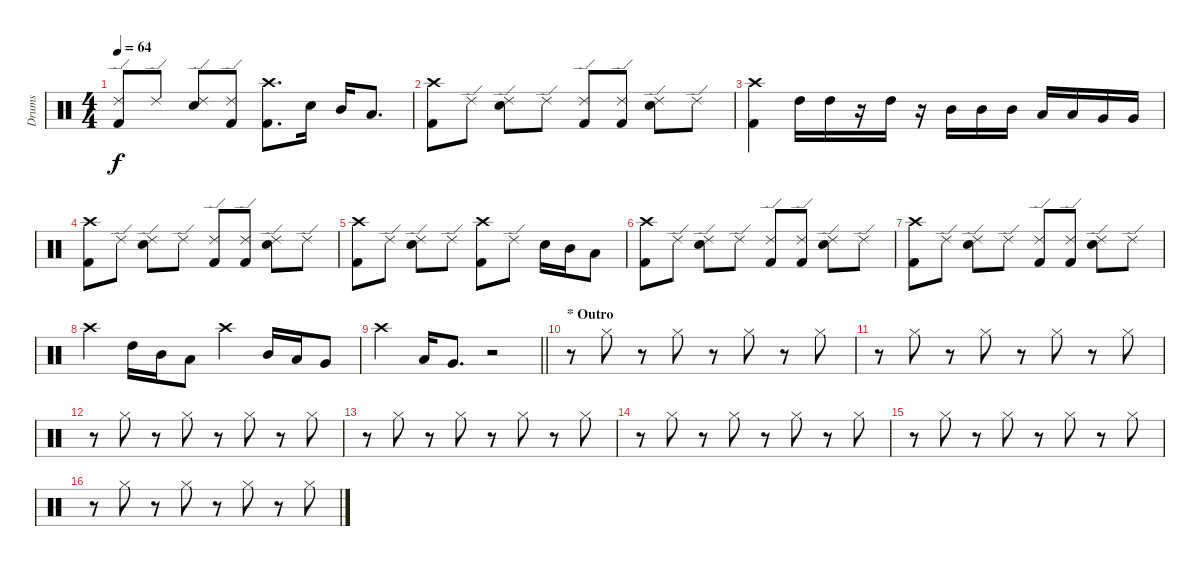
\track ("Drums" "Drums") {instrument percussion}
\staff {score}
\articulation defaults
\ts (4 4)
\tempo 64
\clef neutral
\ks c
("Ride (edge) 2" "Kick (hit) 2").8{dy f} "Ride (edge) 2".8 ("Ride (edge) 2" "Electric Snare (hit)").8 ("Ride (edge) 2" "Kick (hit) 2").8 ("Crash high (hit)" "Kick (hit) 2").8{d} "Electric Snare (hit)".16 "Mid Tom (hit)".16 "Low Tom (hit)".8{d} |
("Crash high (hit)" "Kick (hit) 2").8 "Ride (edge) 2".8 ("Ride (edge) 2" "Electric Snare (hit)").8 "Ride (edge) 2".8 ("Ride (edge) 2" "Kick (hit) 2").8 ("Ride (edge) 2" "Kick (hit) 2").8 ("Ride (edge) 2" "Electric Snare (hit)").8 "Ride (edge) 2".8 |
("Crash high (hit)" "Kick (hit) 2").4 "High Tom (hit)".16 "High Tom (hit)".16 r.16 "High Tom (hit)".16 r.16 "Mid Tom (hit)".16 "Mid Tom (hit)".16 "Mid Tom (hit)".16 "Low Tom (hit)".16 "Low Tom (hit)".16 "Very Low Tom (hit)".16 "Very Low Tom (hit)".16 |
("Crash high (hit)" "Kick (hit) 2").8 "Ride (edge) 2".8 ("Ride (edge) 2" "Electric Snare (hit)").8 "Ride (edge) 2".8 ("Ride (edge) 2" "Kick (hit) 2").8 ("Ride (edge) 2" "Kick (hit) 2").8 ("Ride (edge) 2" "Electric Snare (hit)").8 "Ride (edge) 2".8 |
("Crash high (hit)" "Kick (hit) 2").8 "Ride (edge) 2".8 ("Ride (edge) 2" "Electric Snare (hit)").8 "Ride (edge) 2".8 ("Crash high (hit)" "Kick (hit) 2").8 "Ride (edge) 2".8 "Electric Snare (hit)".16 "Mid Tom (hit)".16 "Low Tom (hit)".8 |
("Crash high (hit)" "Kick (hit) 2").8 "Ride (edge) 2".8 ("Ride (edge) 2" "Electric Snare (hit)").8 "Ride (edge) 2".8 ("Ride (edge) 2" "Kick (hit) 2").8 ("Ride (edge) 2" "Kick (hit) 2").8 ("Ride (edge) 2" "Electric Snare (hit)").8 "Ride (edge) 2".8 |
("Crash high (hit)" "Kick (hit) 2").8 "Ride (edge) 2".8 ("Ride (edge) 2" "Electric Snare (hit)").8 "Ride (edge) 2".8 ("Ride (edge) 2" "Kick (hit) 2").8 ("Ride (edge) 2" "Kick (hit) 2").8 ("Ride (edge) 2" "Electric Snare (hit)").8 "Ride (edge) 2".8 |
"Crash high (hit)".4 "High Tom (hit)".16 "Mid Tom (hit)".16 "Low Tom (hit)".8 "Crash high (hit)".4 "Mid Tom (hit)".16 "Low Tom (hit)".16 "Very Low Tom (hit)".8 |
\barLineRight lightlight "Crash high (hit)".4 "Low Tom (hit)".16 "Very Low Tom (hit)".8{d}
r.2 |
\section ("" "* Outro")
r.8 "Hi-Hat (closed)".8 r.8 "Hi-Hat (closed)".8 r.8 "Hi-Hat (closed)".8 r.8 "Hi-Hat (closed)".8 |
r.8 "Hi-Hat (closed)".8 r.8 "Hi-Hat (closed)".8 r.8 "Hi-Hat (closed)".8 r.8 "Hi-Hat (closed)".8 |
r.8 "Hi-Hat (closed)".8 r.8 "Hi-Hat (closed)".8 r.8 "Hi-Hat (closed)".8 r.8 "Hi-Hat (closed)".8 |
r.8 "Hi-Hat (closed)".8 r.8 "Hi-Hat (closed)".8 r.8 "Hi-Hat (closed)".8 r.8 "Hi-Hat (closed)".8 |
r.8 "Hi-Hat (closed)".8 r.8 "Hi-Hat (closed)".8 r.8 "Hi-Hat (closed)".8 r.8 "Hi-Hat (closed)".8 |
r.8 "Hi-Hat (closed)".8 r.8 "Hi-Hat (closed)".8 r.8 "Hi-Hat (closed)".8 r.8 "Hi-Hat (closed)".8 |
r.8 "Hi-Hat (closed)".8 r.8 "Hi-Hat (closed)".8 r.8 "Hi-Hat (closed)".8 r.8 "Hi-Hat (closed)".8
